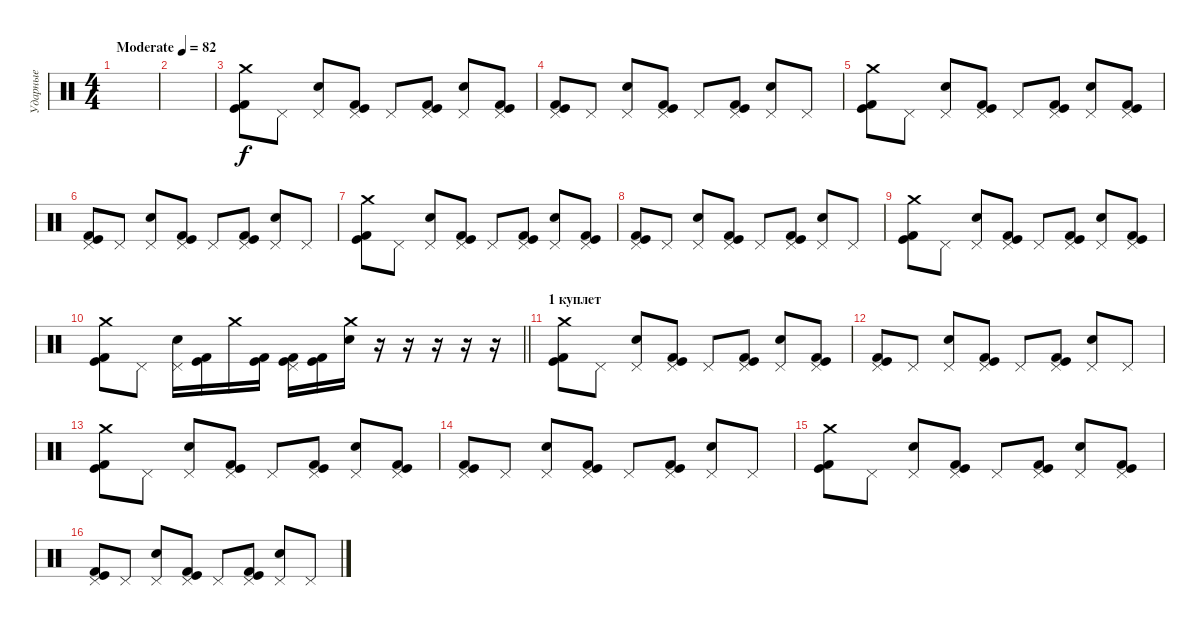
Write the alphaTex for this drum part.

\track ("Ударные" "Ударные") {instrument percussion}
\staff {score}
\articulation defaults
\ts (4 4)
\tempo (82 "Moderate")
\clef neutral
\ks c
|
|
("Crash medium (hit)" "Kick (hit)" "Kick (hit) 2").8 "Pedal Hi-Hat (hit)".8 ("Pedal Hi-Hat (hit)" "Electric Snare (hit)").8 ("Pedal Hi-Hat (hit)" "Kick (hit)" "Kick (hit) 2").8 "Pedal Hi-Hat (hit)".8 ("Pedal Hi-Hat (hit)" "Kick (hit)" "Kick (hit) 2").8 ("Pedal Hi-Hat (hit)" "Electric Snare (hit)").8 ("Pedal Hi-Hat (hit)" "Kick (hit)" "Kick (hit) 2").8 |
("Pedal Hi-Hat (hit)" "Kick (hit)" "Kick (hit) 2").8 "Pedal Hi-Hat (hit)".8 ("Pedal Hi-Hat (hit)" "Electric Snare (hit)").8 ("Pedal Hi-Hat (hit)" "Kick (hit)" "Kick (hit) 2").8 "Pedal Hi-Hat (hit)".8 ("Pedal Hi-Hat (hit)" "Kick (hit)" "Kick (hit) 2").8 ("Pedal Hi-Hat (hit)" "Electric Snare (hit)").8 "Pedal Hi-Hat (hit)".8 |
("Crash medium (hit)" "Kick (hit)" "Kick (hit) 2").8 "Pedal Hi-Hat (hit)".8 ("Pedal Hi-Hat (hit)" "Electric Snare (hit)").8 ("Pedal Hi-Hat (hit)" "Kick (hit)" "Kick (hit) 2").8 "Pedal Hi-Hat (hit)".8 ("Pedal Hi-Hat (hit)" "Kick (hit)" "Kick (hit) 2").8 ("Pedal Hi-Hat (hit)" "Electric Snare (hit)").8 ("Pedal Hi-Hat (hit)" "Kick (hit)" "Kick (hit) 2").8 |
("Pedal Hi-Hat (hit)" "Kick (hit)" "Kick (hit) 2").8 "Pedal Hi-Hat (hit)".8 ("Pedal Hi-Hat (hit)" "Electric Snare (hit)").8 ("Pedal Hi-Hat (hit)" "Kick (hit)" "Kick (hit) 2").8 "Pedal Hi-Hat (hit)".8 ("Pedal Hi-Hat (hit)" "Kick (hit)" "Kick (hit) 2").8 ("Pedal Hi-Hat (hit)" "Electric Snare (hit)").8 "Pedal Hi-Hat (hit)".8 |
("Crash medium (hit)" "Kick (hit)" "Kick (hit) 2").8 "Pedal Hi-Hat (hit)".8 ("Pedal Hi-Hat (hit)" "Electric Snare (hit)").8 ("Pedal Hi-Hat (hit)" "Kick (hit)" "Kick (hit) 2").8 "Pedal Hi-Hat (hit)".8 ("Pedal Hi-Hat (hit)" "Kick (hit)" "Kick (hit) 2").8 ("Pedal Hi-Hat (hit)" "Electric Snare (hit)").8 ("Pedal Hi-Hat (hit)" "Kick (hit)" "Kick (hit) 2").8 |
("Pedal Hi-Hat (hit)" "Kick (hit)" "Kick (hit) 2").8 "Pedal Hi-Hat (hit)".8 ("Pedal Hi-Hat (hit)" "Electric Snare (hit)").8 ("Pedal Hi-Hat (hit)" "Kick (hit)" "Kick (hit) 2").8 "Pedal Hi-Hat (hit)".8 ("Pedal Hi-Hat (hit)" "Kick (hit)" "Kick (hit) 2").8 ("Pedal Hi-Hat (hit)" "Electric Snare (hit)").8 "Pedal Hi-Hat (hit)".8 |
("Crash medium (hit)" "Kick (hit)" "Kick (hit) 2").8 "Pedal Hi-Hat (hit)".8 ("Pedal Hi-Hat (hit)" "Electric Snare (hit)").8 ("Pedal Hi-Hat (hit)" "Kick (hit)" "Kick (hit) 2").8 "Pedal Hi-Hat (hit)".8 ("Pedal Hi-Hat (hit)" "Kick (hit)" "Kick (hit) 2").8 ("Pedal Hi-Hat (hit)" "Electric Snare (hit)").8 ("Pedal Hi-Hat (hit)" "Kick (hit)" "Kick (hit) 2").8 |
\barLineRight lightlight
("Crash medium (hit)" "Kick (hit)" "Kick (hit) 2").8 "Pedal Hi-Hat (hit)".8 ("Pedal Hi-Hat (hit)" "Electric Snare (hit)").16 ("Kick (hit)" "Kick (hit) 2").16 "Crash medium (hit)".16 ("Kick (hit)" "Kick (hit) 2").16 ("Pedal Hi-Hat (hit)" "Kick (hit)" "Kick (hit) 2").16 ("Kick (hit)" "Kick (hit) 2").16 ("Crash medium (hit)" "Electric Snare (hit)").16 r.16 r.16 r.16 r.16 r.16 |
\section ("" "1 куплет")
("Crash medium (hit)" "Kick (hit)" "Kick (hit) 2").8 "Pedal Hi-Hat (hit)".8 ("Pedal Hi-Hat (hit)" "Electric Snare (hit)").8 ("Pedal Hi-Hat (hit)" "Kick (hit)" "Kick (hit) 2").8 "Pedal Hi-Hat (hit)".8 ("Pedal Hi-Hat (hit)" "Kick (hit)" "Kick (hit) 2").8 ("Pedal Hi-Hat (hit)" "Electric Snare (hit)").8 ("Pedal Hi-Hat (hit)" "Kick (hit)" "Kick (hit) 2").8 |
("Pedal Hi-Hat (hit)" "Kick (hit)" "Kick (hit) 2").8 "Pedal Hi-Hat (hit)".8 ("Pedal Hi-Hat (hit)" "Electric Snare (hit)").8 ("Pedal Hi-Hat (hit)" "Kick (hit)" "Kick (hit) 2").8 "Pedal Hi-Hat (hit)".8 ("Pedal Hi-Hat (hit)" "Kick (hit)" "Kick (hit) 2").8 ("Pedal Hi-Hat (hit)" "Electric Snare (hit)").8 "Pedal Hi-Hat (hit)".8 |
("Crash medium (hit)" "Kick (hit)" "Kick (hit) 2").8 "Pedal Hi-Hat (hit)".8 ("Pedal Hi-Hat (hit)" "Electric Snare (hit)").8 ("Pedal Hi-Hat (hit)" "Kick (hit)" "Kick (hit) 2").8 "Pedal Hi-Hat (hit)".8 ("Pedal Hi-Hat (hit)" "Kick (hit)" "Kick (hit) 2").8 ("Pedal Hi-Hat (hit)" "Electric Snare (hit)").8 ("Pedal Hi-Hat (hit)" "Kick (hit)" "Kick (hit) 2").8 |
("Pedal Hi-Hat (hit)" "Kick (hit)" "Kick (hit) 2").8 "Pedal Hi-Hat (hit)".8 ("Pedal Hi-Hat (hit)" "Electric Snare (hit)").8 ("Pedal Hi-Hat (hit)" "Kick (hit)" "Kick (hit) 2").8 "Pedal Hi-Hat (hit)".8 ("Pedal Hi-Hat (hit)" "Kick (hit)" "Kick (hit) 2").8 ("Pedal Hi-Hat (hit)" "Electric Snare (hit)").8 "Pedal Hi-Hat (hit)".8 |
("Crash medium (hit)" "Kick (hit)" "Kick (hit) 2").8 "Pedal Hi-Hat (hit)".8 ("Pedal Hi-Hat (hit)" "Electric Snare (hit)").8 ("Pedal Hi-Hat (hit)" "Kick (hit)" "Kick (hit) 2").8 "Pedal Hi-Hat (hit)".8 ("Pedal Hi-Hat (hit)" "Kick (hit)" "Kick (hit) 2").8 ("Pedal Hi-Hat (hit)" "Electric Snare (hit)").8 ("Pedal Hi-Hat (hit)" "Kick (hit)" "Kick (hit) 2").8 |
("Pedal Hi-Hat (hit)" "Kick (hit)" "Kick (hit) 2").8 "Pedal Hi-Hat (hit)".8 ("Pedal Hi-Hat (hit)" "Electric Snare (hit)").8 ("Pedal Hi-Hat (hit)" "Kick (hit)" "Kick (hit) 2").8 "Pedal Hi-Hat (hit)".8 ("Pedal Hi-Hat (hit)" "Kick (hit)" "Kick (hit) 2").8 ("Pedal Hi-Hat (hit)" "Electric Snare (hit)").8 "Pedal Hi-Hat (hit)".8
